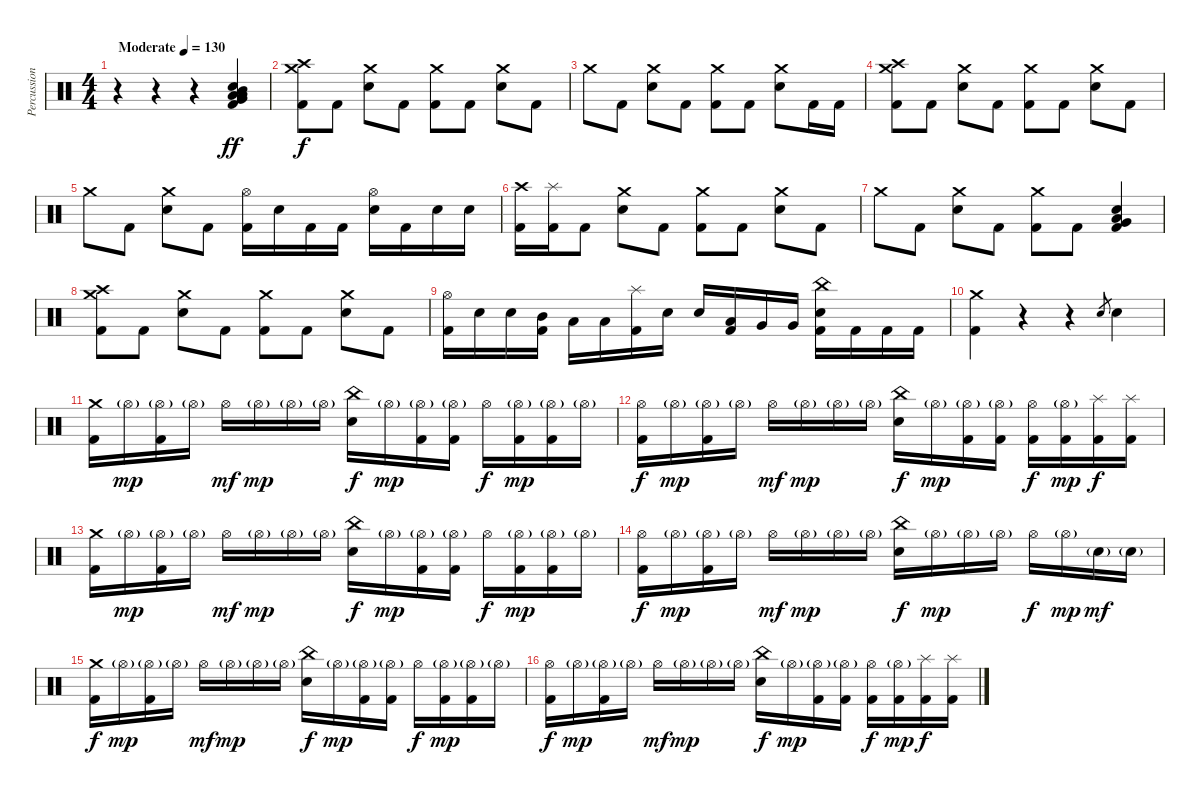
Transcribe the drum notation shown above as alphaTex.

\track ("Percussion" "Percussion") {instrument percussion}
\staff {score}
\articulation defaults
\ts (4 4)
\tempo (130 "Moderate")
\clef neutral
\ks c
r.4{dy ff} r.4 r.4 ("Mid Tom (hit)" "Low Tom (hit)" "Very Low Tom (hit)" "Low Floor Tom (hit)" "Electric Snare (hit)" "Kick (hit) 2").4 |
("Crash medium (hit)" "Crash high (hit)" "Kick (hit) 2").8{dy f} "Kick (hit) 2".8 ("Crash medium (hit)" "Electric Snare (hit)").8 "Kick (hit) 2".8 ("Crash medium (hit)" "Kick (hit) 2").8 "Kick (hit) 2".8 ("Crash medium (hit)" "Electric Snare (hit)").8 "Kick (hit) 2".8 |
"Crash medium (hit)".8 "Kick (hit) 2".8 ("Crash medium (hit)" "Electric Snare (hit)").8 "Kick (hit) 2".8 ("Crash medium (hit)" "Kick (hit) 2").8 "Kick (hit) 2".8 ("Crash medium (hit)" "Electric Snare (hit)").8 "Kick (hit) 2".16 "Kick (hit) 2".16 |
("Crash medium (hit)" "Crash high (hit)" "Kick (hit) 2").8 "Kick (hit) 2".8 ("Crash medium (hit)" "Electric Snare (hit)").8 "Kick (hit) 2".8 ("Crash medium (hit)" "Kick (hit) 2").8 "Kick (hit) 2".8 ("Crash medium (hit)" "Electric Snare (hit)").8 "Kick (hit) 2".8 |
"Crash medium (hit)".8 "Kick (hit) 2".8 ("Crash medium (hit)" "Electric Snare (hit)").8 "Kick (hit) 2".8 ("Hi-Hat (open)" "Kick (hit) 2").16 "Electric Snare (hit)".16 "Kick (hit) 2".16 "Kick (hit) 2".16 ("Hi-Hat (open)" "Electric Snare (hit)").16 "Kick (hit) 2".16 "Electric Snare (hit)".16 "Electric Snare (hit)".16 |
("Crash high (hit)" "Kick (hit) 2").16 ("Splash (hit)" "Kick (hit) 2").16 "Kick (hit) 2".8 ("Crash medium (hit)" "Electric Snare (hit)").8 "Kick (hit) 2".8 ("Crash medium (hit)" "Kick (hit) 2").8 "Kick (hit) 2".8 ("Crash medium (hit)" "Electric Snare (hit)").8 "Kick (hit) 2".8 |
"Crash medium (hit)".8 "Kick (hit) 2".8 ("Crash medium (hit)" "Electric Snare (hit)").8 "Kick (hit) 2".8 ("Crash medium (hit)" "Kick (hit) 2").8 "Kick (hit) 2".8 ("Very Low Tom (hit)" "Low Floor Tom (hit)" "Electric Snare (hit)" "Kick (hit) 2").4 |
("Crash medium (hit)" "Crash high (hit)" "Kick (hit) 2").8 "Kick (hit) 2".8 ("Crash medium (hit)" "Electric Snare (hit)").8 "Kick (hit) 2".8 ("Crash medium (hit)" "Kick (hit) 2").8 "Kick (hit) 2".8 ("Crash medium (hit)" "Electric Snare (hit)").8 "Kick (hit) 2".8 |
("Hi-Hat (open)" "Kick (hit) 2").16 "Electric Snare (hit)".16 "Electric Snare (hit)".16 ("Mid Tom (hit)" "Kick (hit) 2").16 "Low Tom (hit)".16 "Low Tom (hit)".16 ("Splash (hit)" "Kick (hit) 2").16 "Electric Snare (hit)".16 "Electric Snare (hit)".16 ("Low Tom (hit)" "Kick (hit) 2").16 "Very Low Tom (hit)".16 "Very Low Tom (hit)".16 ("China (hit)" "Electric Snare (hit)" "Kick (hit) 2").16 "Kick (hit) 2".16 "Kick (hit) 2".16 "Kick (hit) 2".16 |
("Crash medium (hit)" "Kick (hit) 2").4 r.4 r.4 "Electric Snare (hit)".8{gr} "Electric Snare (hit)".4 |
("Crash medium (hit)" "Kick (hit) 2").16 "Hi-Hat (open)"{g}.16{dy mp} ("Hi-Hat (open)"{g} "Kick (hit) 2").16 "Hi-Hat (open)"{g}.16 "Hi-Hat (open)".16{dy mf} "Hi-Hat (open)"{g}.16{dy mp} "Hi-Hat (open)"{g}.16 "Hi-Hat (open)"{g}.16 ("China (hit)" "Electric Snare (hit)").16{dy f} "Hi-Hat (open)"{g}.16{dy mp} ("Hi-Hat (open)"{g} "Kick (hit) 2").16 ("Hi-Hat (open)"{g} "Kick (hit) 2").16 "Hi-Hat (open)".16{dy f} ("Hi-Hat (open)"{g} "Kick (hit) 2").16{dy mp} ("Hi-Hat (open)"{g} "Kick (hit) 2").16 "Hi-Hat (open)"{g}.16 |
("Hi-Hat (open)" "Kick (hit) 2").16{dy f} "Hi-Hat (open)"{g}.16{dy mp} ("Hi-Hat (open)"{g} "Kick (hit) 2").16 "Hi-Hat (open)"{g}.16 "Hi-Hat (open)".16{dy mf} "Hi-Hat (open)"{g}.16{dy mp} "Hi-Hat (open)"{g}.16 "Hi-Hat (open)"{g}.16 ("China (hit)" "Electric Snare (hit)").16{dy f} "Hi-Hat (open)"{g}.16{dy mp} ("Hi-Hat (open)"{g} "Kick (hit) 2").16 ("Hi-Hat (open)"{g} "Kick (hit) 2").16 ("Hi-Hat (open)" "Kick (hit) 2").16{dy f} ("Hi-Hat (open)"{g} "Kick (hit) 2").16{dy mp} ("Splash (hit)" "Kick (hit) 2").16{dy f} ("Splash (hit)" "Kick (hit) 2").16 |
("Crash medium (hit)" "Kick (hit) 2").16 "Hi-Hat (open)"{g}.16{dy mp} ("Hi-Hat (open)"{g} "Kick (hit) 2").16 "Hi-Hat (open)"{g}.16 "Hi-Hat (open)".16{dy mf} "Hi-Hat (open)"{g}.16{dy mp} "Hi-Hat (open)"{g}.16 "Hi-Hat (open)"{g}.16 ("China (hit)" "Electric Snare (hit)").16{dy f} "Hi-Hat (open)"{g}.16{dy mp} ("Hi-Hat (open)"{g} "Kick (hit) 2").16 ("Hi-Hat (open)"{g} "Kick (hit) 2").16 "Hi-Hat (open)".16{dy f} ("Hi-Hat (open)"{g} "Kick (hit) 2").16{dy mp} ("Hi-Hat (open)"{g} "Kick (hit) 2").16 "Hi-Hat (open)"{g}.16 |
("Hi-Hat (open)" "Kick (hit) 2").16{dy f} "Hi-Hat (open)"{g}.16{dy mp} ("Hi-Hat (open)"{g} "Kick (hit) 2").16 "Hi-Hat (open)"{g}.16 "Hi-Hat (open)".16{dy mf} "Hi-Hat (open)"{g}.16{dy mp} "Hi-Hat (open)"{g}.16 "Hi-Hat (open)"{g}.16 ("China (hit)" "Electric Snare (hit)").16{dy f} "Hi-Hat (open)"{g}.16{dy mp} "Hi-Hat (open)"{g}.16 "Hi-Hat (open)"{g}.16 "Hi-Hat (open)".16{dy f} "Hi-Hat (open)"{g}.16{dy mp} "Electric Snare (hit)"{g}.16{dy mf} "Electric Snare (hit)"{g}.16 |
("Crash medium (hit)" "Kick (hit) 2").16{dy f} "Hi-Hat (open)"{g}.16{dy mp} ("Hi-Hat (open)"{g} "Kick (hit) 2").16 "Hi-Hat (open)"{g}.16 "Hi-Hat (open)".16{dy mf} "Hi-Hat (open)"{g}.16{dy mp} "Hi-Hat (open)"{g}.16 "Hi-Hat (open)"{g}.16 ("China (hit)" "Electric Snare (hit)").16{dy f} "Hi-Hat (open)"{g}.16{dy mp} ("Hi-Hat (open)"{g} "Kick (hit) 2").16 ("Hi-Hat (open)"{g} "Kick (hit) 2").16 "Hi-Hat (open)".16{dy f} ("Hi-Hat (open)"{g} "Kick (hit) 2").16{dy mp} ("Hi-Hat (open)"{g} "Kick (hit) 2").16 "Hi-Hat (open)"{g}.16 |
("Hi-Hat (open)" "Kick (hit) 2").16{dy f} "Hi-Hat (open)"{g}.16{dy mp} ("Hi-Hat (open)"{g} "Kick (hit) 2").16 "Hi-Hat (open)"{g}.16 "Hi-Hat (open)".16{dy mf} "Hi-Hat (open)"{g}.16{dy mp} "Hi-Hat (open)"{g}.16 "Hi-Hat (open)"{g}.16 ("China (hit)" "Electric Snare (hit)").16{dy f} "Hi-Hat (open)"{g}.16{dy mp} ("Hi-Hat (open)"{g} "Kick (hit) 2").16 ("Hi-Hat (open)"{g} "Kick (hit) 2").16 ("Hi-Hat (open)" "Kick (hit) 2").16{dy f} ("Hi-Hat (open)"{g} "Kick (hit) 2").16{dy mp} ("Splash (hit)" "Kick (hit) 2").16{dy f} ("Splash (hit)" "Kick (hit) 2").16
